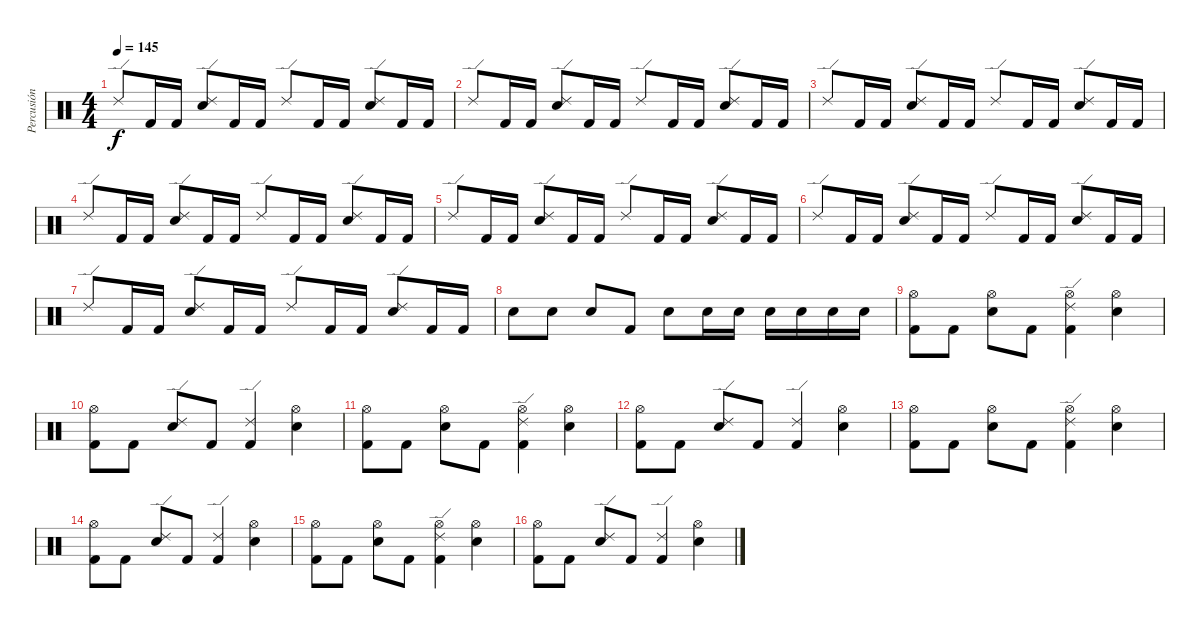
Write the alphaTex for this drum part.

\track ("Percusión" "Percusión") {instrument percussion}
\staff {score}
\articulation defaults
\ts (4 4)
\tempo 145
\clef neutral
\ks c "Ride (edge) 2".8{dy f} "Kick (hit) 2".16 "Kick (hit) 2".16
("Ride (edge) 2" "Snare (hit) 2").8 "Kick (hit) 2".16 "Kick (hit) 2".16 "Ride (edge) 2".8 "Kick (hit) 2".16 "Kick (hit) 2".16 ("Ride (edge) 2" "Snare (hit) 2").8 "Kick (hit) 2".16 "Kick (hit) 2".16 |
"Ride (edge) 2".8 "Kick (hit) 2".16 "Kick (hit) 2".16 ("Ride (edge) 2" "Snare (hit) 2").8 "Kick (hit) 2".16 "Kick (hit) 2".16 "Ride (edge) 2".8 "Kick (hit) 2".16 "Kick (hit) 2".16 ("Ride (edge) 2" "Snare (hit) 2").8 "Kick (hit) 2".16 "Kick (hit) 2".16 |
"Ride (edge) 2".8 "Kick (hit) 2".16 "Kick (hit) 2".16 ("Ride (edge) 2" "Snare (hit) 2").8 "Kick (hit) 2".16 "Kick (hit) 2".16 "Ride (edge) 2".8 "Kick (hit) 2".16 "Kick (hit) 2".16 ("Ride (edge) 2" "Snare (hit) 2").8 "Kick (hit) 2".16 "Kick (hit) 2".16 |
"Ride (edge) 2".8 "Kick (hit) 2".16 "Kick (hit) 2".16 ("Ride (edge) 2" "Snare (hit) 2").8 "Kick (hit) 2".16 "Kick (hit) 2".16 "Ride (edge) 2".8 "Kick (hit) 2".16 "Kick (hit) 2".16 ("Ride (edge) 2" "Snare (hit) 2").8 "Kick (hit) 2".16 "Kick (hit) 2".16 |
"Ride (edge) 2".8 "Kick (hit) 2".16 "Kick (hit) 2".16 ("Ride (edge) 2" "Snare (hit) 2").8 "Kick (hit) 2".16 "Kick (hit) 2".16 "Ride (edge) 2".8 "Kick (hit) 2".16 "Kick (hit) 2".16 ("Ride (edge) 2" "Snare (hit) 2").8 "Kick (hit) 2".16 "Kick (hit) 2".16 |
"Ride (edge) 2".8 "Kick (hit) 2".16 "Kick (hit) 2".16 ("Ride (edge) 2" "Snare (hit) 2").8 "Kick (hit) 2".16 "Kick (hit) 2".16 "Ride (edge) 2".8 "Kick (hit) 2".16 "Kick (hit) 2".16 ("Ride (edge) 2" "Snare (hit) 2").8 "Kick (hit) 2".16 "Kick (hit) 2".16 |
"Ride (edge) 2".8 "Kick (hit) 2".16 "Kick (hit) 2".16 ("Ride (edge) 2" "Snare (hit) 2").8 "Kick (hit) 2".16 "Kick (hit) 2".16 "Ride (edge) 2".8 "Kick (hit) 2".16 "Kick (hit) 2".16 ("Ride (edge) 2" "Snare (hit) 2").8 "Kick (hit) 2".16 "Kick (hit) 2".16 |
"Snare (hit) 2".8 "Snare (hit) 2".8 "Snare (hit) 2".8 "Kick (hit) 2".8 "Snare (hit) 2".8 "Snare (hit) 2".16 "Snare (hit) 2".16 "Snare (hit) 2".16 "Snare (hit) 2".16 "Snare (hit) 2".16 "Snare (hit) 2".16 |
("Hi-Hat (open)" "Kick (hit) 2").8 "Kick (hit) 2".8 ("Hi-Hat (open)" "Snare (hit) 2").8 "Kick (hit) 2".8 ("Hi-Hat (open)" "Ride (edge) 2" "Kick (hit) 2").4 ("Hi-Hat (open)" "Snare (hit) 2").4 |
("Hi-Hat (open)" "Kick (hit) 2").8 "Kick (hit) 2".8 ("Ride (edge) 2" "Snare (hit) 2").8 "Kick (hit) 2".8 ("Ride (edge) 2" "Kick (hit) 2").4 ("Hi-Hat (open)" "Snare (hit) 2").4 |
("Hi-Hat (open)" "Kick (hit) 2").8 "Kick (hit) 2".8 ("Hi-Hat (open)" "Snare (hit) 2").8 "Kick (hit) 2".8 ("Hi-Hat (open)" "Ride (edge) 2" "Kick (hit) 2").4 ("Hi-Hat (open)" "Snare (hit) 2").4 |
("Hi-Hat (open)" "Kick (hit) 2").8 "Kick (hit) 2".8 ("Ride (edge) 2" "Snare (hit) 2").8 "Kick (hit) 2".8 ("Ride (edge) 2" "Kick (hit) 2").4 ("Hi-Hat (open)" "Snare (hit) 2").4 |
("Hi-Hat (open)" "Kick (hit) 2").8 "Kick (hit) 2".8 ("Hi-Hat (open)" "Snare (hit) 2").8 "Kick (hit) 2".8 ("Hi-Hat (open)" "Ride (edge) 2" "Kick (hit) 2").4 ("Hi-Hat (open)" "Snare (hit) 2").4 |
("Hi-Hat (open)" "Kick (hit) 2").8 "Kick (hit) 2".8 ("Ride (edge) 2" "Snare (hit) 2").8 "Kick (hit) 2".8 ("Ride (edge) 2" "Kick (hit) 2").4 ("Hi-Hat (open)" "Snare (hit) 2").4 |
("Hi-Hat (open)" "Kick (hit) 2").8 "Kick (hit) 2".8 ("Hi-Hat (open)" "Snare (hit) 2").8 "Kick (hit) 2".8 ("Hi-Hat (open)" "Ride (edge) 2" "Kick (hit) 2").4 ("Hi-Hat (open)" "Snare (hit) 2").4 |
("Hi-Hat (open)" "Kick (hit) 2").8 "Kick (hit) 2".8 ("Ride (edge) 2" "Snare (hit) 2").8 "Kick (hit) 2".8 ("Ride (edge) 2" "Kick (hit) 2").4 ("Hi-Hat (open)" "Snare (hit) 2").4
